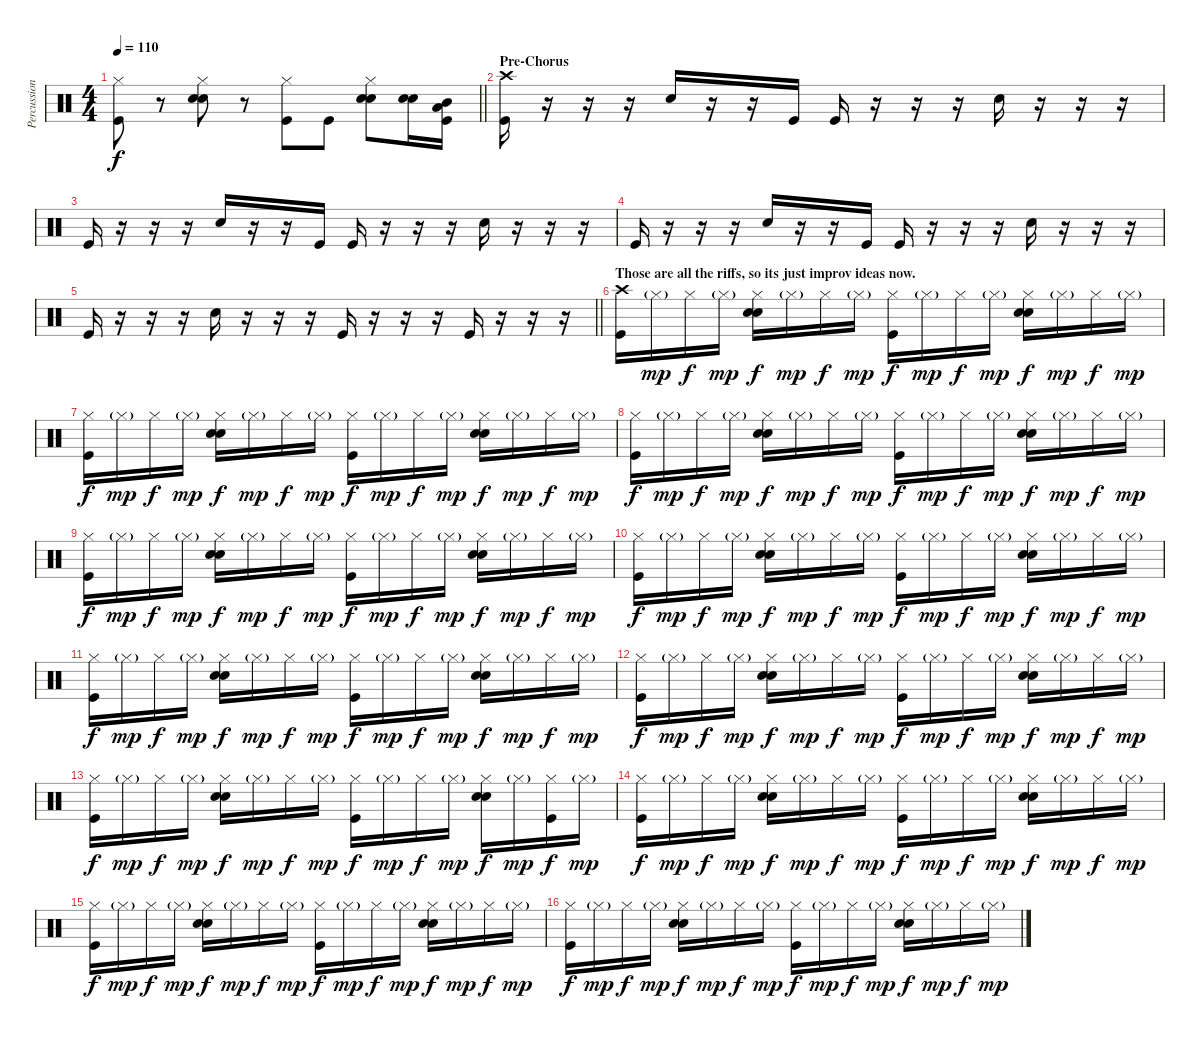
\track ("Percussion" "Percussion") {instrument percussion}
\staff {score}
\articulation defaults
\ts (4 4)
\tempo 110
\clef neutral
\barLineRight lightlight
\ks c
("Hi-Hat (closed)" "Kick (hit)").8{dy f} r.8 ("Hi-Hat (closed)" "Hand Clap (hit)" "Snare (hit) 2").8 r.8 ("Hi-Hat (closed)" "Kick (hit)").8 "Kick (hit)".8 ("Hi-Hat (closed)" "Hand Clap (hit)" "Snare (hit) 2").8 ("Hand Clap (hit)" "Snare (hit) 2").16 ("Mid Tom (hit)" "Low Tom (hit)" "Kick (hit)").16 |
\section ("" "Pre-Chorus")
("Crash high (hit)" "Kick (hit)").16 r.16 r.16 r.16 "Snare (hit) 2".16 r.16 r.16 "Kick (hit)".16 "Kick (hit)".16 r.16 r.16 r.16 "Snare (hit) 2".16 r.16 r.16 r.16 |
"Kick (hit)".16 r.16 r.16 r.16 "Snare (hit) 2".16 r.16 r.16 "Kick (hit)".16 "Kick (hit)".16 r.16 r.16 r.16 "Snare (hit) 2".16 r.16 r.16 r.16 |
"Kick (hit)".16 r.16 r.16 r.16 "Snare (hit) 2".16 r.16 r.16 "Kick (hit)".16 "Kick (hit)".16 r.16 r.16 r.16 "Snare (hit) 2".16 r.16 r.16 r.16 |
\barLineRight lightlight "Kick (hit)".16
r.16 r.16 r.16 "Snare (hit) 2".16 r.16 r.16 r.16 "Kick (hit)".16 r.16 r.16 r.16 "Kick (hit)".16 r.16 r.16 r.16 |
\section ("" "Those are all the riffs, so its just improv ideas now.")
("Crash high (hit)" "Kick (hit)").16 "Hi-Hat (closed)"{g}.16{dy mp} "Hi-Hat (closed)".16{dy f} "Hi-Hat (closed)"{g}.16{dy mp} ("Hi-Hat (closed)" "Hand Clap (hit)" "Snare (hit) 2").16{dy f} "Hi-Hat (closed)"{g}.16{dy mp} "Hi-Hat (closed)".16{dy f} "Hi-Hat (closed)"{g}.16{dy mp} ("Hi-Hat (closed)" "Kick (hit)").16{dy f} "Hi-Hat (closed)"{g}.16{dy mp} "Hi-Hat (closed)".16{dy f} "Hi-Hat (closed)"{g}.16{dy mp} ("Hi-Hat (closed)" "Hand Clap (hit)" "Snare (hit) 2").16{dy f} "Hi-Hat (closed)"{g}.16{dy mp} "Hi-Hat (closed)".16{dy f} "Hi-Hat (closed)"{g}.16{dy mp} |
("Hi-Hat (closed)" "Kick (hit)").16{dy f} "Hi-Hat (closed)"{g}.16{dy mp} "Hi-Hat (closed)".16{dy f} "Hi-Hat (closed)"{g}.16{dy mp} ("Hi-Hat (closed)" "Hand Clap (hit)" "Snare (hit) 2").16{dy f} "Hi-Hat (closed)"{g}.16{dy mp} "Hi-Hat (closed)".16{dy f} "Hi-Hat (closed)"{g}.16{dy mp} ("Hi-Hat (closed)" "Kick (hit)").16{dy f} "Hi-Hat (closed)"{g}.16{dy mp} "Hi-Hat (closed)".16{dy f} "Hi-Hat (closed)"{g}.16{dy mp} ("Hi-Hat (closed)" "Hand Clap (hit)" "Snare (hit) 2").16{dy f} "Hi-Hat (closed)"{g}.16{dy mp} "Hi-Hat (closed)".16{dy f} "Hi-Hat (closed)"{g}.16{dy mp} |
("Hi-Hat (closed)" "Kick (hit)").16{dy f} "Hi-Hat (closed)"{g}.16{dy mp} "Hi-Hat (closed)".16{dy f} "Hi-Hat (closed)"{g}.16{dy mp} ("Hi-Hat (closed)" "Hand Clap (hit)" "Snare (hit) 2").16{dy f} "Hi-Hat (closed)"{g}.16{dy mp} "Hi-Hat (closed)".16{dy f} "Hi-Hat (closed)"{g}.16{dy mp} ("Hi-Hat (closed)" "Kick (hit)").16{dy f} "Hi-Hat (closed)"{g}.16{dy mp} "Hi-Hat (closed)".16{dy f} "Hi-Hat (closed)"{g}.16{dy mp} ("Hi-Hat (closed)" "Hand Clap (hit)" "Snare (hit) 2").16{dy f} "Hi-Hat (closed)"{g}.16{dy mp} "Hi-Hat (closed)".16{dy f} "Hi-Hat (closed)"{g}.16{dy mp} |
("Hi-Hat (closed)" "Kick (hit)").16{dy f} "Hi-Hat (closed)"{g}.16{dy mp} "Hi-Hat (closed)".16{dy f} "Hi-Hat (closed)"{g}.16{dy mp} ("Hi-Hat (closed)" "Hand Clap (hit)" "Snare (hit) 2").16{dy f} "Hi-Hat (closed)"{g}.16{dy mp} "Hi-Hat (closed)".16{dy f} "Hi-Hat (closed)"{g}.16{dy mp} ("Hi-Hat (closed)" "Kick (hit)").16{dy f} "Hi-Hat (closed)"{g}.16{dy mp} "Hi-Hat (closed)".16{dy f} "Hi-Hat (closed)"{g}.16{dy mp} ("Hi-Hat (closed)" "Hand Clap (hit)" "Snare (hit) 2").16{dy f} "Hi-Hat (closed)"{g}.16{dy mp} "Hi-Hat (closed)".16{dy f} "Hi-Hat (closed)"{g}.16{dy mp} |
("Hi-Hat (closed)" "Kick (hit)").16{dy f} "Hi-Hat (closed)"{g}.16{dy mp} "Hi-Hat (closed)".16{dy f} "Hi-Hat (closed)"{g}.16{dy mp} ("Hi-Hat (closed)" "Hand Clap (hit)" "Snare (hit) 2").16{dy f} "Hi-Hat (closed)"{g}.16{dy mp} "Hi-Hat (closed)".16{dy f} "Hi-Hat (closed)"{g}.16{dy mp} ("Hi-Hat (closed)" "Kick (hit)").16{dy f} "Hi-Hat (closed)"{g}.16{dy mp} "Hi-Hat (closed)".16{dy f} "Hi-Hat (closed)"{g}.16{dy mp} ("Hi-Hat (closed)" "Hand Clap (hit)" "Snare (hit) 2").16{dy f} "Hi-Hat (closed)"{g}.16{dy mp} "Hi-Hat (closed)".16{dy f} "Hi-Hat (closed)"{g}.16{dy mp} |
("Hi-Hat (closed)" "Kick (hit)").16{dy f} "Hi-Hat (closed)"{g}.16{dy mp} "Hi-Hat (closed)".16{dy f} "Hi-Hat (closed)"{g}.16{dy mp} ("Hi-Hat (closed)" "Hand Clap (hit)" "Snare (hit) 2").16{dy f} "Hi-Hat (closed)"{g}.16{dy mp} "Hi-Hat (closed)".16{dy f} "Hi-Hat (closed)"{g}.16{dy mp} ("Hi-Hat (closed)" "Kick (hit)").16{dy f} "Hi-Hat (closed)"{g}.16{dy mp} "Hi-Hat (closed)".16{dy f} "Hi-Hat (closed)"{g}.16{dy mp} ("Hi-Hat (closed)" "Hand Clap (hit)" "Snare (hit) 2").16{dy f} "Hi-Hat (closed)"{g}.16{dy mp} "Hi-Hat (closed)".16{dy f} "Hi-Hat (closed)"{g}.16{dy mp} |
("Hi-Hat (closed)" "Kick (hit)").16{dy f} "Hi-Hat (closed)"{g}.16{dy mp} "Hi-Hat (closed)".16{dy f} "Hi-Hat (closed)"{g}.16{dy mp} ("Hi-Hat (closed)" "Hand Clap (hit)" "Snare (hit) 2").16{dy f} "Hi-Hat (closed)"{g}.16{dy mp} "Hi-Hat (closed)".16{dy f} "Hi-Hat (closed)"{g}.16{dy mp} ("Hi-Hat (closed)" "Kick (hit)").16{dy f} "Hi-Hat (closed)"{g}.16{dy mp} "Hi-Hat (closed)".16{dy f} "Hi-Hat (closed)"{g}.16{dy mp} ("Hi-Hat (closed)" "Hand Clap (hit)" "Snare (hit) 2").16{dy f} "Hi-Hat (closed)"{g}.16{dy mp} "Hi-Hat (closed)".16{dy f} "Hi-Hat (closed)"{g}.16{dy mp} |
("Hi-Hat (closed)" "Kick (hit)").16{dy f} "Hi-Hat (closed)"{g}.16{dy mp} "Hi-Hat (closed)".16{dy f} "Hi-Hat (closed)"{g}.16{dy mp} ("Hi-Hat (closed)" "Hand Clap (hit)" "Snare (hit) 2").16{dy f} "Hi-Hat (closed)"{g}.16{dy mp} "Hi-Hat (closed)".16{dy f} "Hi-Hat (closed)"{g}.16{dy mp} ("Hi-Hat (closed)" "Kick (hit)").16{dy f} "Hi-Hat (closed)"{g}.16{dy mp} "Hi-Hat (closed)".16{dy f} "Hi-Hat (closed)"{g}.16{dy mp} ("Hi-Hat (closed)" "Hand Clap (hit)" "Snare (hit) 2").16{dy f} "Hi-Hat (closed)"{g}.16{dy mp} ("Hi-Hat (closed)" "Kick (hit)").16{dy f} "Hi-Hat (closed)"{g}.16{dy mp} |
("Hi-Hat (closed)" "Kick (hit)").16{dy f} "Hi-Hat (closed)"{g}.16{dy mp} "Hi-Hat (closed)".16{dy f} "Hi-Hat (closed)"{g}.16{dy mp} ("Hi-Hat (closed)" "Hand Clap (hit)" "Snare (hit) 2").16{dy f} "Hi-Hat (closed)"{g}.16{dy mp} "Hi-Hat (closed)".16{dy f} "Hi-Hat (closed)"{g}.16{dy mp} ("Hi-Hat (closed)" "Kick (hit)").16{dy f} "Hi-Hat (closed)"{g}.16{dy mp} "Hi-Hat (closed)".16{dy f} "Hi-Hat (closed)"{g}.16{dy mp} ("Hi-Hat (closed)" "Hand Clap (hit)" "Snare (hit) 2").16{dy f} "Hi-Hat (closed)"{g}.16{dy mp} "Hi-Hat (closed)".16{dy f} "Hi-Hat (closed)"{g}.16{dy mp} |
("Hi-Hat (closed)" "Kick (hit)").16{dy f} "Hi-Hat (closed)"{g}.16{dy mp} "Hi-Hat (closed)".16{dy f} "Hi-Hat (closed)"{g}.16{dy mp} ("Hi-Hat (closed)" "Hand Clap (hit)" "Snare (hit) 2").16{dy f} "Hi-Hat (closed)"{g}.16{dy mp} "Hi-Hat (closed)".16{dy f} "Hi-Hat (closed)"{g}.16{dy mp} ("Hi-Hat (closed)" "Kick (hit)").16{dy f} "Hi-Hat (closed)"{g}.16{dy mp} "Hi-Hat (closed)".16{dy f} "Hi-Hat (closed)"{g}.16{dy mp} ("Hi-Hat (closed)" "Hand Clap (hit)" "Snare (hit) 2").16{dy f} "Hi-Hat (closed)"{g}.16{dy mp} "Hi-Hat (closed)".16{dy f} "Hi-Hat (closed)"{g}.16{dy mp} |
("Hi-Hat (closed)" "Kick (hit)").16{dy f} "Hi-Hat (closed)"{g}.16{dy mp} "Hi-Hat (closed)".16{dy f} "Hi-Hat (closed)"{g}.16{dy mp} ("Hi-Hat (closed)" "Hand Clap (hit)" "Snare (hit) 2").16{dy f} "Hi-Hat (closed)"{g}.16{dy mp} "Hi-Hat (closed)".16{dy f} "Hi-Hat (closed)"{g}.16{dy mp} ("Hi-Hat (closed)" "Kick (hit)").16{dy f} "Hi-Hat (closed)"{g}.16{dy mp} "Hi-Hat (closed)".16{dy f} "Hi-Hat (closed)"{g}.16{dy mp} ("Hi-Hat (closed)" "Hand Clap (hit)" "Snare (hit) 2").16{dy f} "Hi-Hat (closed)"{g}.16{dy mp} "Hi-Hat (closed)".16{dy f} "Hi-Hat (closed)"{g}.16{dy mp}
